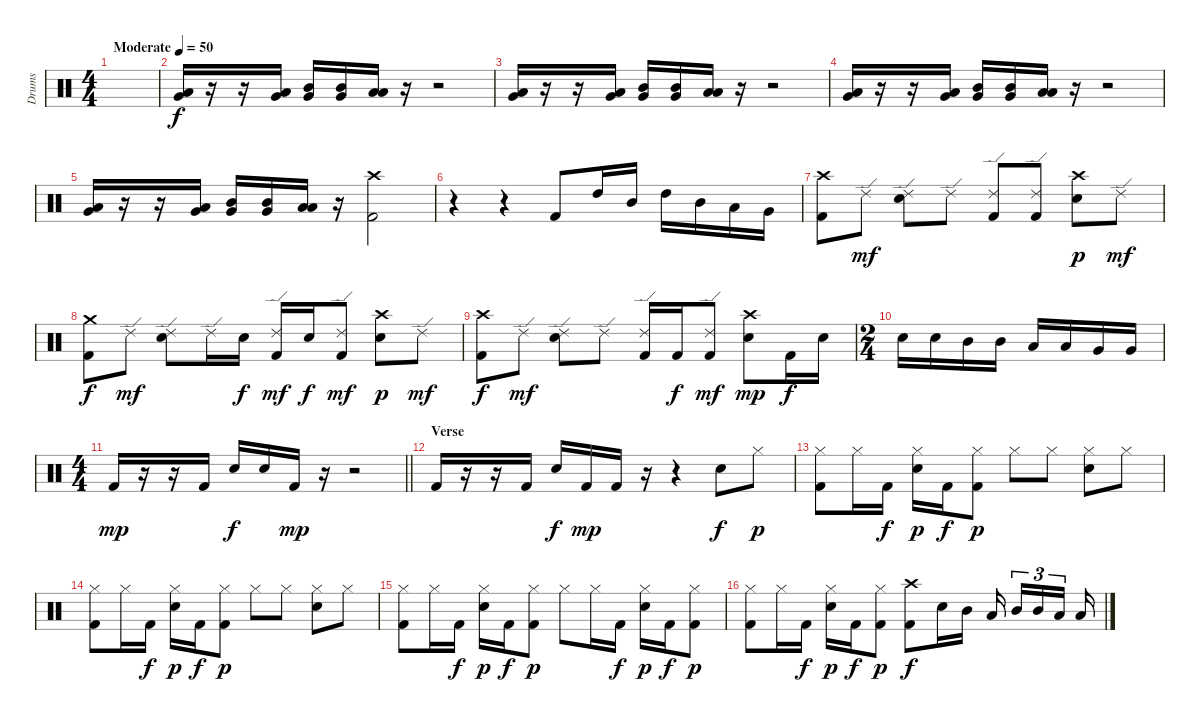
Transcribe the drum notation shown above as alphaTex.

\track ("Drums" "Drums") {instrument percussion}
\staff {score}
\articulation defaults
\ts (4 4)
\tempo (50 "Moderate")
\clef neutral
\ks c
|
("Low Tom (hit)" "Very Low Tom (hit)").16 r.16 r.16 ("Low Tom (hit)" "Very Low Tom (hit)").16 ("Mid Tom (hit)" "Very Low Tom (hit)").16 ("Mid Tom (hit)" "Very Low Tom (hit)").16 ("Low Tom (hit)" "Low Floor Tom (hit)").16 r.16 r.2 |
("Low Tom (hit)" "Very Low Tom (hit)").16 r.16 r.16 ("Low Tom (hit)" "Very Low Tom (hit)").16 ("Mid Tom (hit)" "Very Low Tom (hit)").16 ("Mid Tom (hit)" "Very Low Tom (hit)").16 ("Low Tom (hit)" "Low Floor Tom (hit)").16 r.16 r.2 |
("Low Tom (hit)" "Very Low Tom (hit)").16 r.16 r.16 ("Low Tom (hit)" "Very Low Tom (hit)").16 ("Mid Tom (hit)" "Very Low Tom (hit)").16 ("Mid Tom (hit)" "Very Low Tom (hit)").16 ("Low Tom (hit)" "Low Floor Tom (hit)").16 r.16 r.2 |
("Low Tom (hit)" "Very Low Tom (hit)").16 r.16 r.16 ("Low Tom (hit)" "Very Low Tom (hit)").16 ("Mid Tom (hit)" "Very Low Tom (hit)").16 ("Mid Tom (hit)" "Very Low Tom (hit)").16 ("Low Tom (hit)" "Low Floor Tom (hit)").16 r.16 ("Crash high (hit)" "Kick (hit) 2").2 |
r.4 r.4 "Kick (hit) 2".8 "High Tom (hit)".16 "Mid Tom (hit)".16 "High Tom (hit)".16 "Mid Tom (hit)".16 "Low Tom (hit)".16 "Very Low Tom (hit)".16 |
("Crash high (hit)" "Kick (hit) 2").8 "Ride (edge) 2".8{dy mf} ("Ride (edge) 2" "Electric Snare (hit)").8 "Ride (edge) 2".8 ("Ride (edge) 2" "Kick (hit) 2").8 ("Ride (edge) 2" "Kick (hit) 2").8 ("Crash high (hit)" "Electric Snare (hit)").8{dy p} "Ride (edge) 2".8{dy mf} |
("Crash medium (hit)" "Kick (hit) 2").8{dy f} "Ride (edge) 2".8{dy mf} ("Ride (edge) 2" "Electric Snare (hit)").8 "Ride (edge) 2".16 "Electric Snare (hit)".16{dy f} ("Ride (edge) 2" "Kick (hit) 2").16{dy mf} "Electric Snare (hit)".16{dy f} ("Ride (edge) 2" "Kick (hit) 2").8{dy mf} ("Crash high (hit)" "Electric Snare (hit)").8{dy p} "Ride (edge) 2".8{dy mf} |
("Crash high (hit)" "Kick (hit) 2").8{dy f} "Ride (edge) 2".8{dy mf} ("Ride (edge) 2" "Electric Snare (hit)").8 "Ride (edge) 2".8 ("Ride (edge) 2" "Kick (hit) 2").16 "Kick (hit) 2".16{dy f} ("Ride (edge) 2" "Kick (hit) 2").8{dy mf} ("Crash high (hit)" "Electric Snare (hit)").8{dy mp} "Kick (hit) 2".16{dy f} "Electric Snare (hit)".16 |
\ts (2 4)
"Electric Snare (hit)".16 "Electric Snare (hit)".16 "Mid Tom (hit)".16 "Mid Tom (hit)".16 "Low Tom (hit)".16 "Low Tom (hit)".16 "Very Low Tom (hit)".16 "Very Low Tom (hit)".16 |
\ts (4 4)
\barLineRight lightlight "Kick (hit) 2".16{dy mp}
r.16 r.16 "Kick (hit) 2".16 "Electric Snare (hit)".16{dy f} "Electric Snare (hit)".16 "Kick (hit) 2".16{dy mp} r.16 r.2 |
\section ("" "Verse")
"Kick (hit) 2".16 r.16 r.16 "Kick (hit) 2".16 "Electric Snare (hit)".16{dy f} "Kick (hit) 2".16{dy mp} "Kick (hit) 2".16 r.16 r.4 "Electric Snare (hit)".8{dy f} "Hi-Hat (closed)".8{dy p} |
("Hi-Hat (closed)" "Kick (hit) 2").8 "Hi-Hat (closed)".16 "Kick (hit) 2".16{dy f} ("Hi-Hat (closed)" "Electric Snare (hit)").16{dy p} "Kick (hit) 2".16{dy f} ("Hi-Hat (closed)" "Kick (hit) 2").8{dy p} "Hi-Hat (closed)".8 "Hi-Hat (closed)".8 ("Hi-Hat (closed)" "Electric Snare (hit)").8 "Hi-Hat (closed)".8 |
("Hi-Hat (closed)" "Kick (hit) 2").8 "Hi-Hat (closed)".16 "Kick (hit) 2".16{dy f} ("Hi-Hat (closed)" "Electric Snare (hit)").16{dy p} "Kick (hit) 2".16{dy f} ("Hi-Hat (closed)" "Kick (hit) 2").8{dy p} "Hi-Hat (closed)".8 "Hi-Hat (closed)".8 ("Hi-Hat (closed)" "Electric Snare (hit)").8 "Hi-Hat (closed)".8 |
("Hi-Hat (closed)" "Kick (hit) 2").8 "Hi-Hat (closed)".16 "Kick (hit) 2".16{dy f} ("Hi-Hat (closed)" "Electric Snare (hit)").16{dy p} "Kick (hit) 2".16{dy f} ("Hi-Hat (closed)" "Kick (hit) 2").8{dy p} "Hi-Hat (closed)".8 "Hi-Hat (closed)".16 "Kick (hit) 2".16{dy f} ("Hi-Hat (closed)" "Electric Snare (hit)").16{dy p} "Kick (hit) 2".16{dy f} ("Hi-Hat (closed)" "Kick (hit) 2").8{dy p} |
("Hi-Hat (closed)" "Kick (hit) 2").8 "Hi-Hat (closed)".16 "Kick (hit) 2".16{dy f} ("Hi-Hat (closed)" "Electric Snare (hit)").16{dy p} "Kick (hit) 2".16{dy f} ("Hi-Hat (closed)" "Kick (hit) 2").8{dy p} ("Crash high (hit)" "Kick (hit) 2").8{dy f} "Electric Snare (hit)".16 "Mid Tom (hit)".16 "Low Tom (hit)".16{beam splitsecondary} "Mid Tom (hit)".16{tu (3 2)} "Mid Tom (hit)".16{tu (3 2)} "Low Tom (hit)".16{tu (3 2) beam splitsecondary} "Low Tom (hit)".16
